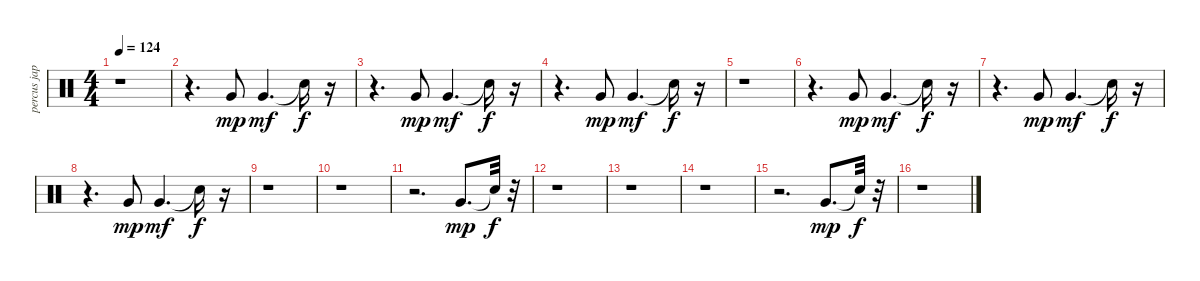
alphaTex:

\track ("percus jap" "percus jap") {instrument percussion}
\staff {score}
\articulation defaults
\ts (4 4)
\tempo 124
\clef neutral
\ks c
r.1{dy f} |
r.4{d} "Very Low Tom (hit)".8{dy mp} "Very Low Tom (hit)".4{d dy mf} "Snare (hit)"{t}.16{dy f} r.16 |
r.4{d} "Very Low Tom (hit)".8{dy mp} "Very Low Tom (hit)".4{d dy mf} "Snare (hit)"{t}.16{dy f} r.16 |
r.4{d} "Very Low Tom (hit)".8{dy mp} "Very Low Tom (hit)".4{d dy mf} "Snare (hit)"{t}.16{dy f} r.16 |
r.1 |
r.4{d} "Very Low Tom (hit)".8{dy mp} "Very Low Tom (hit)".4{d dy mf} "Snare (hit)"{t}.16{dy f} r.16 |
r.4{d} "Very Low Tom (hit)".8{dy mp} "Very Low Tom (hit)".4{d dy mf} "Snare (hit)"{t}.16{dy f} r.16 |
r.4{d} "Very Low Tom (hit)".8{dy mp} "Very Low Tom (hit)".4{d dy mf} "Snare (hit)"{t}.16{dy f} r.16 |
r.1 |
r.1 |
r.2{d} "Very Low Tom (hit)".8{d dy mp} "Snare (hit)"{t}.32{dy f} r.32 |
r.1 |
r.1 |
r.1 |
r.2{d} "Very Low Tom (hit)".8{d dy mp} "Snare (hit)"{t}.32{dy f} r.32 |
r.1
